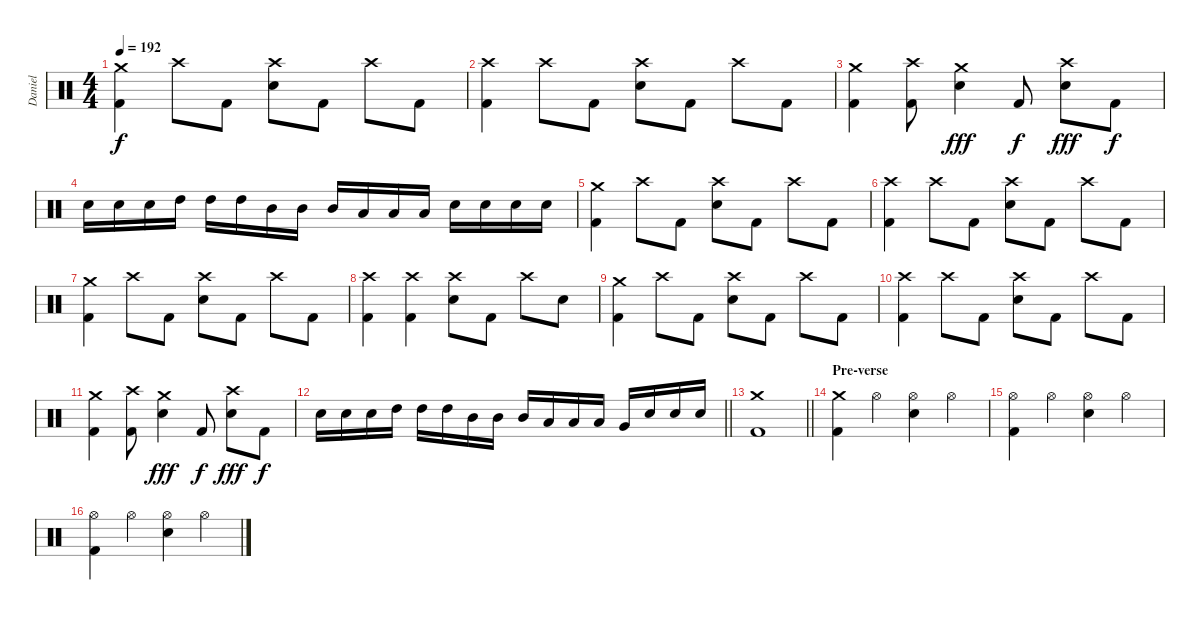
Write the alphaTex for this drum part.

\track ("Daniel" "Daniel") {instrument percussion}
\staff {score}
\articulation defaults
\ts (4 4)
\tempo 192
\clef neutral
\ks c
("Kick (hit) 2" "Crash medium (hit)").4{dy f} "Crash high (hit)".8 "Kick (hit) 2".8 ("Electric Snare (hit)" "Crash high (hit)").8 "Kick (hit) 2".8 "Crash high (hit)".8 "Kick (hit) 2".8 |
("Kick (hit) 2" "Crash high (hit)").4 "Crash high (hit)".8 "Kick (hit) 2".8 ("Electric Snare (hit)" "Crash high (hit)").8 "Kick (hit) 2".8 "Crash high (hit)".8 "Kick (hit) 2".8 |
("Kick (hit) 2" "Crash medium (hit)").4 ("Kick (hit) 2" "Crash high (hit)").8 ("Electric Snare (hit)" "Crash medium (hit)").4{dy fff} "Kick (hit) 2".8{dy f} ("Electric Snare (hit)" "Crash high (hit)").8{dy fff} "Kick (hit) 2".8{dy f} |
"Electric Snare (hit)".16 "Electric Snare (hit)".16 "Electric Snare (hit)".16 "High Tom (hit)".16 "High Tom (hit)".16 "High Tom (hit)".16 "Mid Tom (hit)".16 "Mid Tom (hit)".16 "Mid Tom (hit)".16 "Low Tom (hit)".16 "Low Tom (hit)".16 "Low Tom (hit)".16 "Electric Snare (hit)".16 "Electric Snare (hit)".16 "Electric Snare (hit)".16 "Electric Snare (hit)".16 |
("Kick (hit) 2" "Crash medium (hit)").4 "Crash high (hit)".8 "Kick (hit) 2".8 ("Electric Snare (hit)" "Crash high (hit)").8 "Kick (hit) 2".8 "Crash high (hit)".8 "Kick (hit) 2".8 |
("Kick (hit) 2" "Crash high (hit)").4 "Crash high (hit)".8 "Kick (hit) 2".8 ("Electric Snare (hit)" "Crash high (hit)").8 "Kick (hit) 2".8 "Crash high (hit)".8 "Kick (hit) 2".8 |
("Kick (hit) 2" "Crash medium (hit)").4 "Crash high (hit)".8 "Kick (hit) 2".8 ("Electric Snare (hit)" "Crash high (hit)").8 "Kick (hit) 2".8 "Crash high (hit)".8 "Kick (hit) 2".8 |
("Kick (hit) 2" "Crash high (hit)").4 ("Kick (hit) 2" "Crash high (hit)").4 ("Electric Snare (hit)" "Crash high (hit)").8 "Kick (hit) 2".8 "Crash high (hit)".8 "Electric Snare (hit)".8 |
("Kick (hit) 2" "Crash medium (hit)").4 "Crash high (hit)".8 "Kick (hit) 2".8 ("Electric Snare (hit)" "Crash high (hit)").8 "Kick (hit) 2".8 "Crash high (hit)".8 "Kick (hit) 2".8 |
("Kick (hit) 2" "Crash high (hit)").4 "Crash high (hit)".8 "Kick (hit) 2".8 ("Electric Snare (hit)" "Crash high (hit)").8 "Kick (hit) 2".8 "Crash high (hit)".8 "Kick (hit) 2".8 |
("Kick (hit) 2" "Crash medium (hit)").4 ("Kick (hit) 2" "Crash high (hit)").8 ("Electric Snare (hit)" "Crash medium (hit)").4{dy fff} "Kick (hit) 2".8{dy f} ("Electric Snare (hit)" "Crash high (hit)").8{dy fff} "Kick (hit) 2".8{dy f} |
\barLineRight lightlight "Electric Snare (hit)".16 "Electric Snare (hit)".16 "Electric Snare (hit)".16 "High Tom (hit)".16 "High Tom (hit)".16 "High Tom (hit)".16 "Mid Tom (hit)".16 "Mid Tom (hit)".16 "Mid Tom (hit)".16 "Low Tom (hit)".16 "Low Tom (hit)".16 "Low Tom (hit)".16 "Very Low Tom (hit)".16 "Electric Snare (hit)".16 "Electric Snare (hit)".16 "Electric Snare (hit)".16
|
\barLineRight lightlight
("Kick (hit) 2" "Crash medium (hit)").1 |
\section ("" "Pre-verse")
("Kick (hit) 2" "Crash medium (hit)").4 "Hi-Hat (open)".4 ("Electric Snare (hit)" "Hi-Hat (open)").4 "Hi-Hat (open)".4 |
("Kick (hit) 2" "Hi-Hat (open)").4 "Hi-Hat (open)".4 ("Electric Snare (hit)" "Hi-Hat (open)").4 "Hi-Hat (open)".4 |
("Kick (hit) 2" "Hi-Hat (open)").4 "Hi-Hat (open)".4 ("Electric Snare (hit)" "Hi-Hat (open)").4 "Hi-Hat (open)".4
